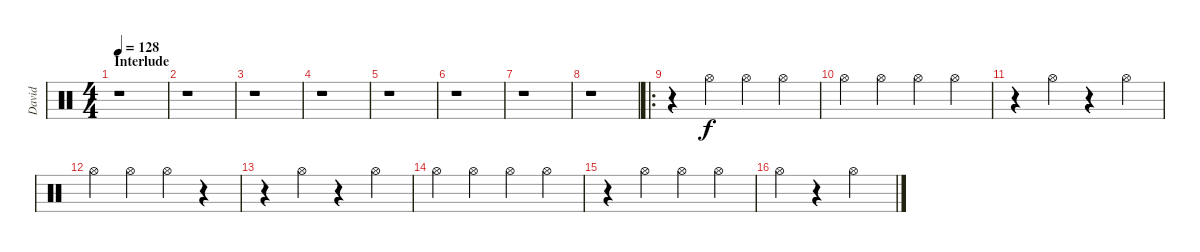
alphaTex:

\track ("David" "David") {instrument percussion}
\staff {score}
\articulation defaults
\ts (4 4)
\section ("" "Interlude")
\tempo 128
\clef neutral
\ks c
r.1{dy f} |
r.1 |
r.1 |
r.1 |
r.1 |
r.1 |
r.1 |
r.1 |
\ro
r.4 "Hi-Hat (open)".4 "Hi-Hat (open)".4 "Hi-Hat (open)".4 |
"Hi-Hat (open)".4 "Hi-Hat (open)".4 "Hi-Hat (open)".4 "Hi-Hat (open)".4 |
r.4 "Hi-Hat (open)".4 r.4 "Hi-Hat (open)".4 |
"Hi-Hat (open)".4 "Hi-Hat (open)".4 "Hi-Hat (open)".4 r.4 |
r.4 "Hi-Hat (open)".4 r.4 "Hi-Hat (open)".4 |
"Hi-Hat (open)".4 "Hi-Hat (open)".4 "Hi-Hat (open)".4 "Hi-Hat (open)".4 |
r.4 "Hi-Hat (open)".4 "Hi-Hat (open)".4 "Hi-Hat (open)".4 |
"Hi-Hat (open)".4 r.4 "Hi-Hat (open)".2
